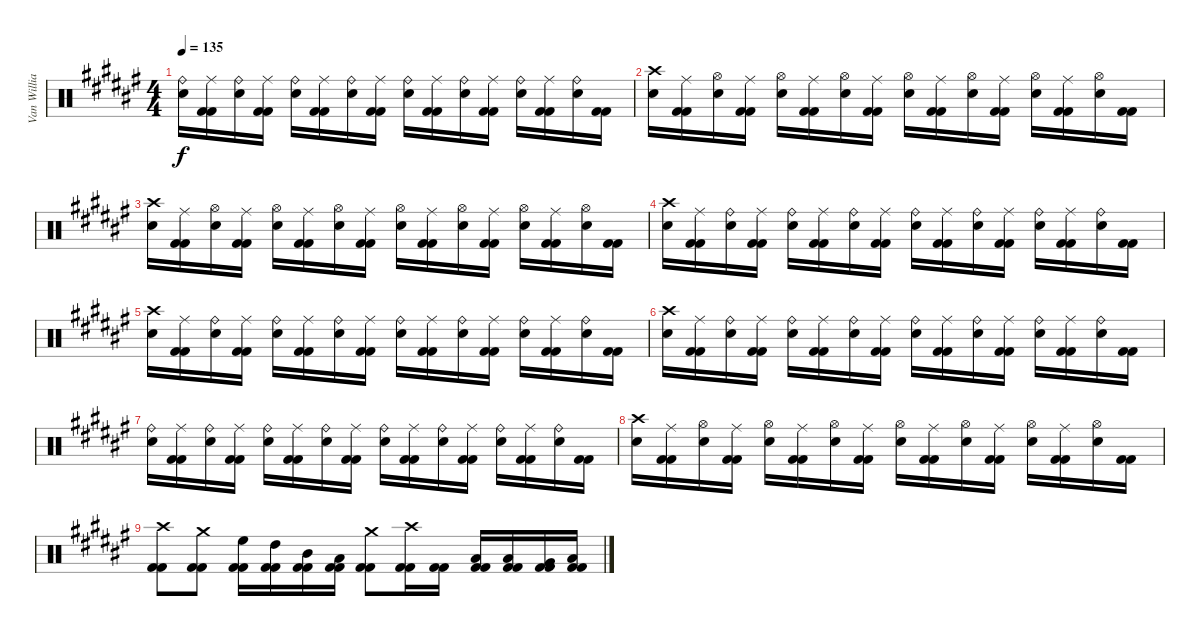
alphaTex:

\track ("Van Williams" "Van Willia") {instrument percussion}
\staff {score}
\articulation defaults
\ts (4 4)
\tempo 135
\clef neutral
\ks f#
("Ride (bell)" "Electric Snare (hit)").16{dy f} ("Ride (middle)" "Kick (hit) 2" "Kick (hit) 2").16 ("Ride (bell)" "Electric Snare (hit)").16 ("Ride (middle)" "Kick (hit) 2" "Kick (hit) 2").16 ("Ride (bell)" "Electric Snare (hit)").16 ("Ride (middle)" "Kick (hit) 2" "Kick (hit) 2").16 ("Ride (bell)" "Electric Snare (hit)").16 ("Ride (middle)" "Kick (hit) 2" "Kick (hit) 2").16 ("Ride (bell)" "Electric Snare (hit)").16 ("Ride (middle)" "Kick (hit) 2" "Kick (hit) 2").16 ("Ride (bell)" "Electric Snare (hit)").16 ("Ride (middle)" "Kick (hit) 2" "Kick (hit) 2").16 ("Ride (bell)" "Electric Snare (hit)").16 ("Ride (middle)" "Kick (hit) 2" "Kick (hit) 2").16 ("Ride (bell)" "Electric Snare (hit)").16 ("Kick (hit) 2" "Kick (hit) 2").16 |
("Crash high (hit)" "Electric Snare (hit)").16 ("Ride (middle)" "Kick (hit) 2" "Kick (hit) 2").16 ("Hi-Hat (open)" "Electric Snare (hit)").16 ("Ride (middle)" "Kick (hit) 2" "Kick (hit) 2").16 ("Hi-Hat (open)" "Electric Snare (hit)").16 ("Ride (middle)" "Kick (hit) 2" "Kick (hit) 2").16 ("Hi-Hat (open)" "Electric Snare (hit)").16 ("Ride (middle)" "Kick (hit) 2" "Kick (hit) 2").16 ("Hi-Hat (open)" "Electric Snare (hit)").16 ("Ride (middle)" "Kick (hit) 2" "Kick (hit) 2").16 ("Hi-Hat (open)" "Electric Snare (hit)").16 ("Ride (middle)" "Kick (hit) 2" "Kick (hit) 2").16 ("Hi-Hat (open)" "Electric Snare (hit)").16 ("Ride (middle)" "Kick (hit) 2" "Kick (hit) 2").16 ("Hi-Hat (open)" "Electric Snare (hit)").16 ("Kick (hit) 2" "Kick (hit) 2").16 |
("Crash high (hit)" "Electric Snare (hit)").16 ("Ride (middle)" "Kick (hit) 2" "Kick (hit) 2").16 ("Hi-Hat (open)" "Electric Snare (hit)").16 ("Ride (middle)" "Kick (hit) 2" "Kick (hit) 2").16 ("Hi-Hat (open)" "Electric Snare (hit)").16 ("Ride (middle)" "Kick (hit) 2" "Kick (hit) 2").16 ("Hi-Hat (open)" "Electric Snare (hit)").16 ("Ride (middle)" "Kick (hit) 2" "Kick (hit) 2").16 ("Hi-Hat (open)" "Electric Snare (hit)").16 ("Ride (middle)" "Kick (hit) 2" "Kick (hit) 2").16 ("Hi-Hat (open)" "Electric Snare (hit)").16 ("Ride (middle)" "Kick (hit) 2" "Kick (hit) 2").16 ("Hi-Hat (open)" "Electric Snare (hit)").16 ("Ride (middle)" "Kick (hit) 2" "Kick (hit) 2").16 ("Hi-Hat (open)" "Electric Snare (hit)").16 ("Kick (hit) 2" "Kick (hit) 2").16 |
("Crash high (hit)" "Electric Snare (hit)").16 ("Ride (middle)" "Kick (hit) 2" "Kick (hit) 2").16 ("Ride (bell)" "Electric Snare (hit)").16 ("Ride (middle)" "Kick (hit) 2" "Kick (hit) 2").16 ("Ride (bell)" "Electric Snare (hit)").16 ("Ride (middle)" "Kick (hit) 2" "Kick (hit) 2").16 ("Ride (bell)" "Electric Snare (hit)").16 ("Ride (middle)" "Kick (hit) 2" "Kick (hit) 2").16 ("Ride (bell)" "Electric Snare (hit)").16 ("Ride (middle)" "Kick (hit) 2" "Kick (hit) 2").16 ("Ride (bell)" "Electric Snare (hit)").16 ("Ride (middle)" "Kick (hit) 2" "Kick (hit) 2").16 ("Ride (bell)" "Electric Snare (hit)").16 ("Ride (middle)" "Kick (hit) 2" "Kick (hit) 2").16 ("Ride (bell)" "Electric Snare (hit)").16 ("Kick (hit) 2" "Kick (hit) 2").16 |
("Crash high (hit)" "Electric Snare (hit)").16 ("Ride (middle)" "Kick (hit) 2" "Kick (hit) 2").16 ("Ride (bell)" "Electric Snare (hit)").16 ("Ride (middle)" "Kick (hit) 2" "Kick (hit) 2").16 ("Ride (bell)" "Electric Snare (hit)").16 ("Ride (middle)" "Kick (hit) 2" "Kick (hit) 2").16 ("Ride (bell)" "Electric Snare (hit)").16 ("Ride (middle)" "Kick (hit) 2" "Kick (hit) 2").16 ("Ride (bell)" "Electric Snare (hit)").16 ("Ride (middle)" "Kick (hit) 2" "Kick (hit) 2").16 ("Ride (bell)" "Electric Snare (hit)").16 ("Ride (middle)" "Kick (hit) 2" "Kick (hit) 2").16 ("Ride (bell)" "Electric Snare (hit)").16 ("Ride (middle)" "Kick (hit) 2" "Kick (hit) 2").16 ("Ride (bell)" "Electric Snare (hit)").16 ("Kick (hit) 2" "Kick (hit) 2").16 |
("Crash high (hit)" "Electric Snare (hit)").16 ("Ride (middle)" "Kick (hit) 2" "Kick (hit) 2").16 ("Ride (bell)" "Electric Snare (hit)").16 ("Ride (middle)" "Kick (hit) 2" "Kick (hit) 2").16 ("Ride (bell)" "Electric Snare (hit)").16 ("Ride (middle)" "Kick (hit) 2" "Kick (hit) 2").16 ("Ride (bell)" "Electric Snare (hit)").16 ("Ride (middle)" "Kick (hit) 2" "Kick (hit) 2").16 ("Ride (bell)" "Electric Snare (hit)").16 ("Ride (middle)" "Kick (hit) 2" "Kick (hit) 2").16 ("Ride (bell)" "Electric Snare (hit)").16 ("Ride (middle)" "Kick (hit) 2" "Kick (hit) 2").16 ("Ride (bell)" "Electric Snare (hit)").16 ("Ride (middle)" "Kick (hit) 2" "Kick (hit) 2").16 ("Ride (bell)" "Electric Snare (hit)").16 ("Kick (hit) 2" "Kick (hit) 2").16 |
("Ride (bell)" "Electric Snare (hit)").16 ("Ride (middle)" "Kick (hit) 2" "Kick (hit) 2").16 ("Ride (bell)" "Electric Snare (hit)").16 ("Ride (middle)" "Kick (hit) 2" "Kick (hit) 2").16 ("Ride (bell)" "Electric Snare (hit)").16 ("Ride (middle)" "Kick (hit) 2" "Kick (hit) 2").16 ("Ride (bell)" "Electric Snare (hit)").16 ("Ride (middle)" "Kick (hit) 2" "Kick (hit) 2").16 ("Ride (bell)" "Electric Snare (hit)").16 ("Ride (middle)" "Kick (hit) 2" "Kick (hit) 2").16 ("Ride (bell)" "Electric Snare (hit)").16 ("Ride (middle)" "Kick (hit) 2" "Kick (hit) 2").16 ("Ride (bell)" "Electric Snare (hit)").16 ("Ride (middle)" "Kick (hit) 2" "Kick (hit) 2").16 ("Ride (bell)" "Electric Snare (hit)").16 ("Kick (hit) 2" "Kick (hit) 2").16 |
("Crash high (hit)" "Electric Snare (hit)").16 ("Ride (middle)" "Kick (hit) 2" "Kick (hit) 2").16 ("Hi-Hat (open)" "Electric Snare (hit)").16 ("Ride (middle)" "Kick (hit) 2" "Kick (hit) 2").16 ("Hi-Hat (open)" "Electric Snare (hit)").16 ("Ride (middle)" "Kick (hit) 2" "Kick (hit) 2").16 ("Hi-Hat (open)" "Electric Snare (hit)").16 ("Ride (middle)" "Kick (hit) 2" "Kick (hit) 2").16 ("Hi-Hat (open)" "Electric Snare (hit)").16 ("Ride (middle)" "Kick (hit) 2" "Kick (hit) 2").16 ("Hi-Hat (open)" "Electric Snare (hit)").16 ("Ride (middle)" "Kick (hit) 2" "Kick (hit) 2").16 ("Hi-Hat (open)" "Electric Snare (hit)").16 ("Ride (middle)" "Kick (hit) 2" "Kick (hit) 2").16 ("Hi-Hat (open)" "Electric Snare (hit)").16 ("Kick (hit) 2" "Kick (hit) 2").16 |
("Crash high (hit)" "Kick (hit) 2" "Kick (hit) 2").8 ("Crash medium (hit)" "Kick (hit) 2" "Kick (hit) 2").8 ("High Floor Tom (hit)" "Kick (hit) 2" "Kick (hit) 2").16 ("High Tom (hit)" "Kick (hit) 2" "Kick (hit) 2").16 ("Mid Tom (hit)" "Kick (hit) 2" "Kick (hit) 2").16 ("Low Tom (hit)" "Kick (hit) 2" "Kick (hit) 2").16 ("Crash medium (hit)" "Kick (hit) 2" "Kick (hit) 2").8 ("Crash high (hit)" "Kick (hit) 2" "Kick (hit) 2").16 ("Kick (hit) 2" "Kick (hit) 2").16 ("Low Tom (hit)" "Kick (hit) 2" "Kick (hit) 2").16 ("Low Tom (hit)" "Kick (hit) 2" "Kick (hit) 2").16 ("Very Low Tom (hit)" "Kick (hit) 2" "Kick (hit) 2").16 ("Low Floor Tom (hit)" "Kick (hit) 2" "Kick (hit) 2").16
